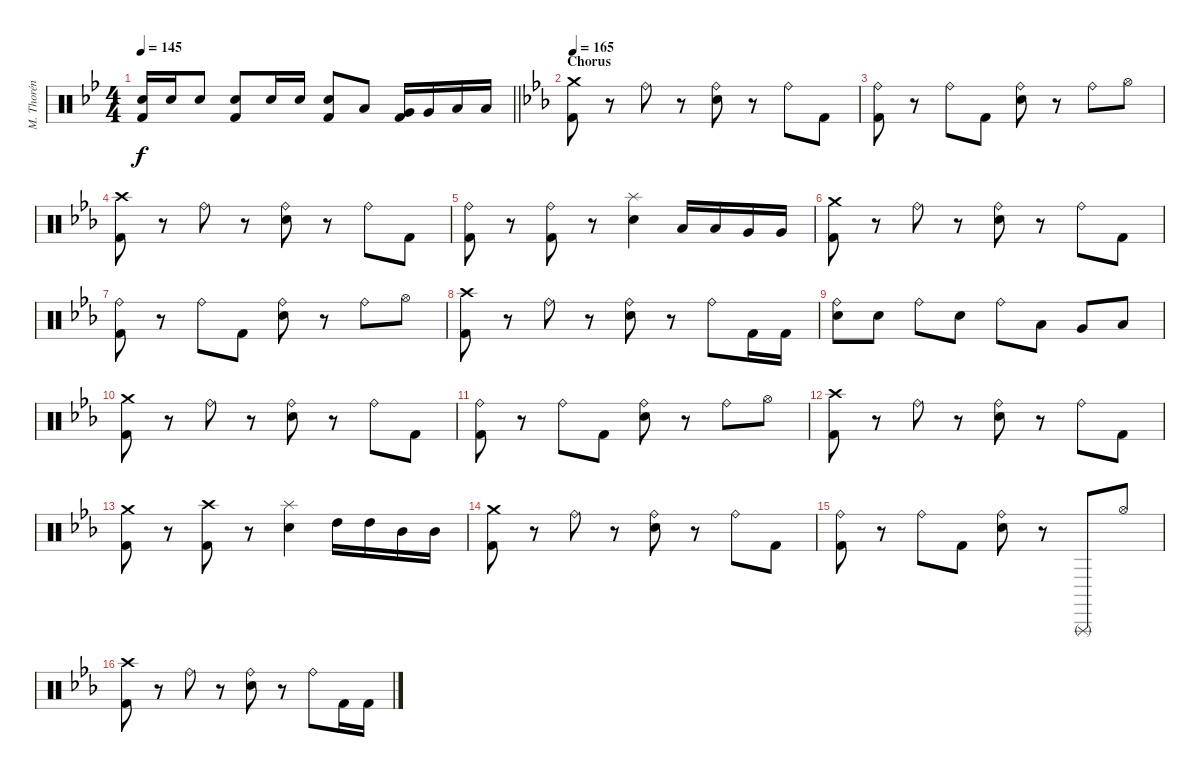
\track ("M. Thorén (Drums)" "M. Thorén ") {instrument percussion}
\staff {score}
\articulation defaults
\ts (4 4)
\tempo 145
\clef neutral
\barLineRight lightlight
\ks gminor
("Electric Snare (hit)" "Kick (hit) 2").16{dy f} "Electric Snare (hit)".16 "Electric Snare (hit)".8 ("Electric Snare (hit)" "Kick (hit) 2").8 "Electric Snare (hit)".16 "Electric Snare (hit)".16 ("Electric Snare (hit)" "Kick (hit) 2").8 "Low Tom (hit)".8 ("Very Low Tom (hit)" "Kick (hit) 2").16 "Very Low Tom (hit)".16 "Low Floor Tom (hit)".16 "Low Floor Tom (hit)".16 |
\section ("" "Chorus")
\tempo 165
\ks cminor
("Crash medium (hit)" "Kick (hit) 2").8 r.8 "Ride (bell)".8 r.8 ("Ride (bell)" "Electric Snare (hit)").8 r.8 "Ride (bell)".8 "Kick (hit) 2".8 |
("Ride (bell)" "Kick (hit) 2").8 r.8 "Ride (bell)".8 "Kick (hit) 2".8 ("Ride (bell)" "Electric Snare (hit)").8 r.8 "Ride (bell)".8 "Hi-Hat (open)".8 |
("Crash high (hit)" "Kick (hit) 2").8 r.8 "Ride (bell)".8 r.8 ("Ride (bell)" "Electric Snare (hit)").8 r.8 "Ride (bell)".8 "Kick (hit) 2".8 |
("Ride (bell)" "Kick (hit) 2").8 r.8 ("Ride (bell)" "Kick (hit) 2").8 r.8 ("Splash (hit)" "Electric Snare (hit)").4 "Low Tom (hit)".16 "Low Tom (hit)".16 "Very Low Tom (hit)".16 "Very Low Tom (hit)".16 |
("Crash medium (hit)" "Kick (hit) 2").8 r.8 "Ride (bell)".8 r.8 ("Ride (bell)" "Electric Snare (hit)").8 r.8 "Ride (bell)".8 "Kick (hit) 2".8 |
("Ride (bell)" "Kick (hit) 2").8 r.8 "Ride (bell)".8 "Kick (hit) 2".8 ("Ride (bell)" "Electric Snare (hit)").8 r.8 "Ride (bell)".8 "Hi-Hat (open)".8 |
("Crash high (hit)" "Kick (hit) 2").8 r.8 "Ride (bell)".8 r.8 ("Ride (bell)" "Electric Snare (hit)").8 r.8 "Ride (bell)".8 "Kick (hit) 2".16 "Kick (hit) 2".16 |
("Ride (bell)" "Electric Snare (hit)").8 "Electric Snare (hit)".8 "Ride (bell)".8 "Electric Snare (hit)".8 "Ride (bell)".8 "Low Tom (hit)".8 "Very Low Tom (hit)".8 "Low Floor Tom (hit)".8 |
("Crash medium (hit)" "Kick (hit) 2").8 r.8 "Ride (bell)".8 r.8 ("Ride (bell)" "Electric Snare (hit)").8 r.8 "Ride (bell)".8 "Kick (hit) 2".8 |
("Ride (bell)" "Kick (hit) 2").8 r.8 "Ride (bell)".8 "Kick (hit) 2".8 ("Ride (bell)" "Electric Snare (hit)").8 r.8 "Ride (bell)".8 "Hi-Hat (open)".8 |
("Crash high (hit)" "Kick (hit) 2").8 r.8 "Ride (bell)".8 r.8 ("Ride (bell)" "Electric Snare (hit)").8 r.8 "Ride (bell)".8 "Kick (hit) 2".8 |
("Crash medium (hit)" "Kick (hit) 2").8 r.8 ("Crash high (hit)" "Kick (hit) 2").8 r.8 ("Splash (hit)" "Electric Snare (hit)").4 "High Tom (hit)".16 "High Tom (hit)".16 "Mid Tom (hit)".16 "Mid Tom (hit)".16 |
("Crash medium (hit)" "Kick (hit) 2").8 r.8 "Ride (bell)".8 r.8 ("Ride (bell)" "Electric Snare (hit)").8 r.8 "Ride (bell)".8 "Kick (hit) 2".8 |
("Ride (bell)" "Kick (hit) 2").8 r.8 "Ride (bell)".8 "Kick (hit) 2".8 ("Ride (bell)" "Electric Snare (hit)").8 r.8 "Triangle (rnute)".8 "Hi-Hat (open)".8 |
("Crash high (hit)" "Kick (hit) 2").8 r.8 "Ride (bell)".8 r.8 ("Ride (bell)" "Electric Snare (hit)").8 r.8 "Ride (bell)".8 "Kick (hit) 2".16 "Kick (hit) 2".16
